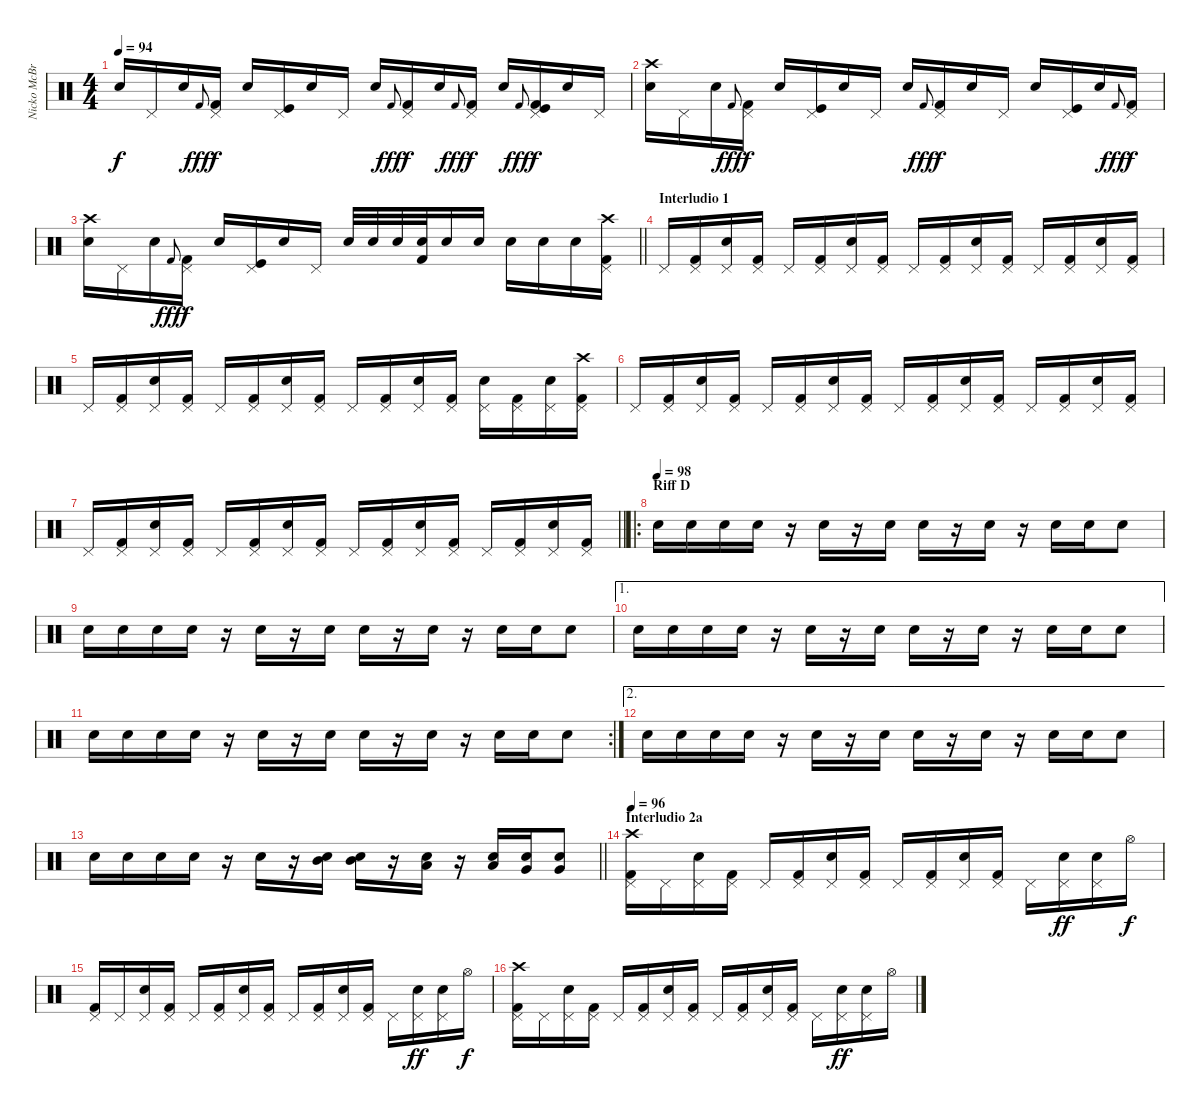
\track ("Nicko McBrain" "Nicko McBr") {instrument percussion}
\staff {score}
\articulation defaults
\ts (4 4)
\tempo 94
\clef neutral
\ks c "Snare (hit) 2".16{dy f} "Pedal Hi-Hat (hit)".16 "Snare (hit) 2".16 "Kick (hit) 2".8{gr onbeat dy fff}
("Pedal Hi-Hat (hit)" "Kick (hit) 2").16{dy f} "Snare (hit) 2".16 ("Kick (hit)" "Pedal Hi-Hat (hit)").16 "Snare (hit) 2".16 "Pedal Hi-Hat (hit)".16 "Snare (hit) 2".16 "Kick (hit) 2".8{gr onbeat dy fff} ("Pedal Hi-Hat (hit)" "Kick (hit) 2").16{dy f} "Snare (hit) 2".16 "Kick (hit) 2".8{gr onbeat dy fff} ("Pedal Hi-Hat (hit)" "Kick (hit) 2").16{dy f} "Snare (hit) 2".16 "Kick (hit) 2".8{gr onbeat dy fff} ("Kick (hit)" "Pedal Hi-Hat (hit)" "Kick (hit) 2").16{dy f} "Snare (hit) 2".16 "Pedal Hi-Hat (hit)".16 |
("Snare (hit) 2" "Crash high (hit)").16 "Pedal Hi-Hat (hit)".16 "Snare (hit) 2".16 "Kick (hit) 2".8{gr onbeat dy fff} ("Pedal Hi-Hat (hit)" "Kick (hit) 2").16{dy f} "Snare (hit) 2".16 ("Kick (hit)" "Pedal Hi-Hat (hit)").16 "Snare (hit) 2".16 "Pedal Hi-Hat (hit)".16 "Snare (hit) 2".16 "Kick (hit) 2".8{gr onbeat dy fff} ("Pedal Hi-Hat (hit)" "Kick (hit) 2").16{dy f} "Snare (hit) 2".16 "Pedal Hi-Hat (hit)".16 "Snare (hit) 2".16 ("Kick (hit)" "Pedal Hi-Hat (hit)").16 "Snare (hit) 2".16 "Kick (hit) 2".8{gr onbeat dy fff} ("Pedal Hi-Hat (hit)" "Kick (hit) 2").16{dy f} |
\barLineRight lightlight
("Snare (hit) 2" "Crash high (hit)").16 "Pedal Hi-Hat (hit)".16 "Snare (hit) 2".16 "Kick (hit) 2".8{gr onbeat dy fff} ("Pedal Hi-Hat (hit)" "Kick (hit) 2").16{dy f} "Snare (hit) 2".16 ("Kick (hit)" "Pedal Hi-Hat (hit)").16 "Snare (hit) 2".16 "Pedal Hi-Hat (hit)".16 "Snare (hit) 2".32 "Snare (hit) 2".32 "Snare (hit) 2".32 ("Snare (hit) 2" "Kick (hit) 2").32 "Snare (hit) 2".16 "Snare (hit) 2".16 "Snare (hit) 2".16 "Snare (hit) 2".16 "Snare (hit) 2".16 ("Kick (hit) 2" "Pedal Hi-Hat (hit)" "Crash high (hit)").16 |
\section ("" "Interludio 1")
"Pedal Hi-Hat (hit)".16 ("Kick (hit) 2" "Pedal Hi-Hat (hit)").16 ("Snare (hit) 2" "Pedal Hi-Hat (hit)").16 ("Kick (hit) 2" "Pedal Hi-Hat (hit)").16 "Pedal Hi-Hat (hit)".16 ("Kick (hit) 2" "Pedal Hi-Hat (hit)").16 ("Snare (hit) 2" "Pedal Hi-Hat (hit)").16 ("Kick (hit) 2" "Pedal Hi-Hat (hit)").16 "Pedal Hi-Hat (hit)".16 ("Kick (hit) 2" "Pedal Hi-Hat (hit)").16 ("Snare (hit) 2" "Pedal Hi-Hat (hit)").16 ("Kick (hit) 2" "Pedal Hi-Hat (hit)").16 "Pedal Hi-Hat (hit)".16 ("Kick (hit) 2" "Pedal Hi-Hat (hit)").16 ("Snare (hit) 2" "Pedal Hi-Hat (hit)").16 ("Kick (hit) 2" "Pedal Hi-Hat (hit)").16 |
"Pedal Hi-Hat (hit)".16 ("Kick (hit) 2" "Pedal Hi-Hat (hit)").16 ("Snare (hit) 2" "Pedal Hi-Hat (hit)").16 ("Kick (hit) 2" "Pedal Hi-Hat (hit)").16 "Pedal Hi-Hat (hit)".16 ("Kick (hit) 2" "Pedal Hi-Hat (hit)").16 ("Snare (hit) 2" "Pedal Hi-Hat (hit)").16 ("Kick (hit) 2" "Pedal Hi-Hat (hit)").16 "Pedal Hi-Hat (hit)".16 ("Kick (hit) 2" "Pedal Hi-Hat (hit)").16 ("Snare (hit) 2" "Pedal Hi-Hat (hit)").16 ("Kick (hit) 2" "Pedal Hi-Hat (hit)").16 ("Snare (hit) 2" "Pedal Hi-Hat (hit)").16 ("Kick (hit) 2" "Pedal Hi-Hat (hit)").16 ("Snare (hit) 2" "Pedal Hi-Hat (hit)").16 ("Kick (hit) 2" "Pedal Hi-Hat (hit)" "Crash high (hit)").16 |
"Pedal Hi-Hat (hit)".16 ("Kick (hit) 2" "Pedal Hi-Hat (hit)").16 ("Snare (hit) 2" "Pedal Hi-Hat (hit)").16 ("Kick (hit) 2" "Pedal Hi-Hat (hit)").16 "Pedal Hi-Hat (hit)".16 ("Kick (hit) 2" "Pedal Hi-Hat (hit)").16 ("Snare (hit) 2" "Pedal Hi-Hat (hit)").16 ("Kick (hit) 2" "Pedal Hi-Hat (hit)").16 "Pedal Hi-Hat (hit)".16 ("Kick (hit) 2" "Pedal Hi-Hat (hit)").16 ("Snare (hit) 2" "Pedal Hi-Hat (hit)").16 ("Kick (hit) 2" "Pedal Hi-Hat (hit)").16 "Pedal Hi-Hat (hit)".16 ("Kick (hit) 2" "Pedal Hi-Hat (hit)").16 ("Snare (hit) 2" "Pedal Hi-Hat (hit)").16 ("Kick (hit) 2" "Pedal Hi-Hat (hit)").16 |
\barLineRight lightlight "Pedal Hi-Hat (hit)".16
("Kick (hit) 2" "Pedal Hi-Hat (hit)").16 ("Snare (hit) 2" "Pedal Hi-Hat (hit)").16 ("Kick (hit) 2" "Pedal Hi-Hat (hit)").16 "Pedal Hi-Hat (hit)".16 ("Kick (hit) 2" "Pedal Hi-Hat (hit)").16 ("Snare (hit) 2" "Pedal Hi-Hat (hit)").16 ("Kick (hit) 2" "Pedal Hi-Hat (hit)").16 "Pedal Hi-Hat (hit)".16 ("Kick (hit) 2" "Pedal Hi-Hat (hit)").16 ("Snare (hit) 2" "Pedal Hi-Hat (hit)").16 ("Kick (hit) 2" "Pedal Hi-Hat (hit)").16 "Pedal Hi-Hat (hit)".16 ("Kick (hit) 2" "Pedal Hi-Hat (hit)").16 ("Snare (hit) 2" "Pedal Hi-Hat (hit)").16 ("Kick (hit) 2" "Pedal Hi-Hat (hit)").16 |
\ro
\section ("" "Riff D")
\tempo (98)
"Snare (hit) 2".16 "Snare (hit) 2".16 "Snare (hit) 2".16 "Snare (hit) 2".16 r.16 "Snare (hit) 2".16 r.16 "Snare (hit) 2".16 "Snare (hit) 2".16 r.16 "Snare (hit) 2".16 r.16 "Snare (hit) 2".16 "Snare (hit) 2".16 "Snare (hit) 2".8 |
"Snare (hit) 2".16 "Snare (hit) 2".16 "Snare (hit) 2".16 "Snare (hit) 2".16 r.16 "Snare (hit) 2".16 r.16 "Snare (hit) 2".16 "Snare (hit) 2".16 r.16 "Snare (hit) 2".16 r.16 "Snare (hit) 2".16 "Snare (hit) 2".16 "Snare (hit) 2".8 |
\ae 1 "Snare (hit) 2".16 "Snare (hit) 2".16 "Snare (hit) 2".16 "Snare (hit) 2".16
r.16 "Snare (hit) 2".16 r.16 "Snare (hit) 2".16 "Snare (hit) 2".16 r.16 "Snare (hit) 2".16 r.16 "Snare (hit) 2".16 "Snare (hit) 2".16 "Snare (hit) 2".8 |
\rc 2 "Snare (hit) 2".16 "Snare (hit) 2".16 "Snare (hit) 2".16 "Snare (hit) 2".16
r.16 "Snare (hit) 2".16 r.16 "Snare (hit) 2".16 "Snare (hit) 2".16 r.16 "Snare (hit) 2".16 r.16 "Snare (hit) 2".16 "Snare (hit) 2".16 "Snare (hit) 2".8 |
\ae 2 "Snare (hit) 2".16 "Snare (hit) 2".16 "Snare (hit) 2".16 "Snare (hit) 2".16
r.16 "Snare (hit) 2".16 r.16 "Snare (hit) 2".16 "Snare (hit) 2".16 r.16 "Snare (hit) 2".16 r.16 "Snare (hit) 2".16 "Snare (hit) 2".16 "Snare (hit) 2".8 |
\barLineRight lightlight "Snare (hit) 2".16 "Snare (hit) 2".16 "Snare (hit) 2".16 "Snare (hit) 2".16
r.16 "Snare (hit) 2".16 r.16 ("Snare (hit) 2" "Mid Tom (hit)").16 ("Snare (hit) 2" "Mid Tom (hit)").16 r.16 ("Snare (hit) 2" "Low Tom (hit)").16 r.16 ("Snare (hit) 2" "Low Tom (hit)").16 ("Snare (hit) 2" "Very Low Tom (hit)").16 ("Snare (hit) 2" "Very Low Tom (hit)").8 |
\section ("" "Interludio 2a")
\tempo 96
("Kick (hit) 2" "Pedal Hi-Hat (hit)" "Crash high (hit)").16 "Pedal Hi-Hat (hit)".16 ("Snare (hit) 2" "Pedal Hi-Hat (hit)").16 ("Kick (hit) 2" "Pedal Hi-Hat (hit)").16 "Pedal Hi-Hat (hit)".16 ("Kick (hit) 2" "Pedal Hi-Hat (hit)").16 ("Snare (hit) 2" "Pedal Hi-Hat (hit)").16 ("Kick (hit) 2" "Pedal Hi-Hat (hit)").16 "Pedal Hi-Hat (hit)".16 ("Kick (hit) 2" "Pedal Hi-Hat (hit)").16 ("Snare (hit) 2" "Pedal Hi-Hat (hit)").16 ("Kick (hit) 2" "Pedal Hi-Hat (hit)").16 "Pedal Hi-Hat (hit)".16 ("Snare (hit) 2" "Pedal Hi-Hat (hit)").16{dy ff} ("Snare (hit) 2" "Pedal Hi-Hat (hit)").16 "Hi-Hat (open)".16{dy f} |
("Kick (hit) 2" "Pedal Hi-Hat (hit)").16 "Pedal Hi-Hat (hit)".16 ("Snare (hit) 2" "Pedal Hi-Hat (hit)").16 ("Kick (hit) 2" "Pedal Hi-Hat (hit)").16 "Pedal Hi-Hat (hit)".16 ("Kick (hit) 2" "Pedal Hi-Hat (hit)").16 ("Snare (hit) 2" "Pedal Hi-Hat (hit)").16 ("Kick (hit) 2" "Pedal Hi-Hat (hit)").16 "Pedal Hi-Hat (hit)".16 ("Kick (hit) 2" "Pedal Hi-Hat (hit)").16 ("Snare (hit) 2" "Pedal Hi-Hat (hit)").16 ("Kick (hit) 2" "Pedal Hi-Hat (hit)").16 "Pedal Hi-Hat (hit)".16 ("Snare (hit) 2" "Pedal Hi-Hat (hit)").16{dy ff} ("Snare (hit) 2" "Pedal Hi-Hat (hit)").16 "Hi-Hat (open)".16{dy f} |
("Kick (hit) 2" "Pedal Hi-Hat (hit)" "Crash high (hit)").16 "Pedal Hi-Hat (hit)".16 ("Snare (hit) 2" "Pedal Hi-Hat (hit)").16 ("Kick (hit) 2" "Pedal Hi-Hat (hit)").16 "Pedal Hi-Hat (hit)".16 ("Kick (hit) 2" "Pedal Hi-Hat (hit)").16 ("Snare (hit) 2" "Pedal Hi-Hat (hit)").16 ("Kick (hit) 2" "Pedal Hi-Hat (hit)").16 "Pedal Hi-Hat (hit)".16 ("Kick (hit) 2" "Pedal Hi-Hat (hit)").16 ("Snare (hit) 2" "Pedal Hi-Hat (hit)").16 ("Kick (hit) 2" "Pedal Hi-Hat (hit)").16 "Pedal Hi-Hat (hit)".16 ("Snare (hit) 2" "Pedal Hi-Hat (hit)").16{dy ff} ("Snare (hit) 2" "Pedal Hi-Hat (hit)").16 "Hi-Hat (open)".16
